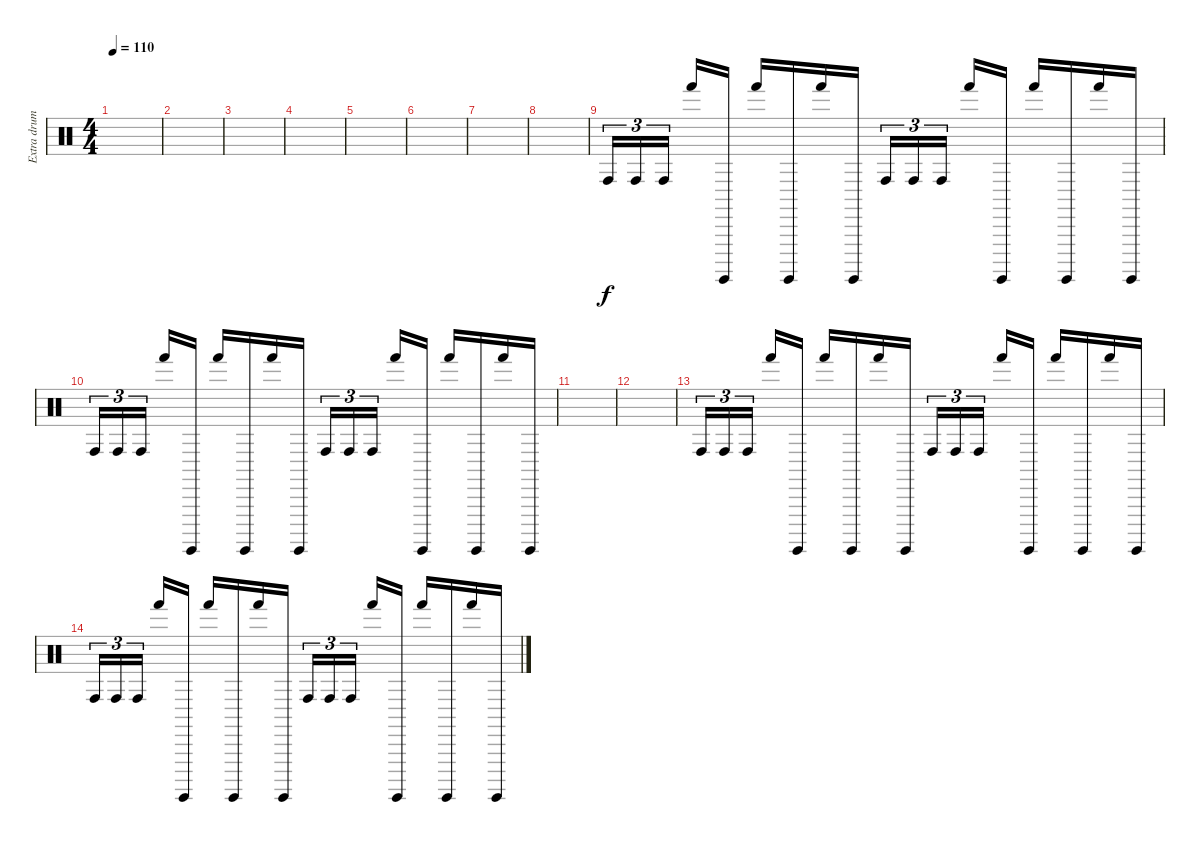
\track ("Extra drums" "Extra drum") {instrument percussion}
\staff {score}
\articulation defaults
\ts (4 4)
\tempo 110
\clef neutral
\ks c
|
|
|
|
|
|
|
|
"Conga high (hit)".16{tu (3 2)} "Conga high (hit)".16{tu (3 2)} "Conga high (hit)".16{tu (3 2) beam splitsecondary} "Hand (hit)".16 "Surdo (hit)".16 "Hand (hit)".16 "Surdo (hit)".16 "Hand (hit)".16 "Surdo (hit)".16 "Conga high (hit)".16{tu (3 2)} "Conga high (hit)".16{tu (3 2)} "Conga high (hit)".16{tu (3 2) beam splitsecondary} "Hand (hit)".16 "Surdo (hit)".16 "Hand (hit)".16 "Surdo (hit)".16 "Hand (hit)".16 "Surdo (hit)".16 |
"Conga high (hit)".16{tu (3 2)} "Conga high (hit)".16{tu (3 2)} "Conga high (hit)".16{tu (3 2) beam splitsecondary} "Hand (hit)".16 "Surdo (hit)".16 "Hand (hit)".16 "Surdo (hit)".16 "Hand (hit)".16 "Surdo (hit)".16 "Conga high (hit)".16{tu (3 2)} "Conga high (hit)".16{tu (3 2)} "Conga high (hit)".16{tu (3 2) beam splitsecondary} "Hand (hit)".16 "Surdo (hit)".16 "Hand (hit)".16 "Surdo (hit)".16 "Hand (hit)".16 "Surdo (hit)".16 |
|
|
"Conga high (hit)".16{tu (3 2)} "Conga high (hit)".16{tu (3 2)} "Conga high (hit)".16{tu (3 2) beam splitsecondary} "Hand (hit)".16 "Surdo (hit)".16 "Hand (hit)".16 "Surdo (hit)".16 "Hand (hit)".16 "Surdo (hit)".16 "Conga high (hit)".16{tu (3 2)} "Conga high (hit)".16{tu (3 2)} "Conga high (hit)".16{tu (3 2) beam splitsecondary} "Hand (hit)".16 "Surdo (hit)".16 "Hand (hit)".16 "Surdo (hit)".16 "Hand (hit)".16 "Surdo (hit)".16 |
"Conga high (hit)".16{tu (3 2)} "Conga high (hit)".16{tu (3 2)} "Conga high (hit)".16{tu (3 2) beam splitsecondary} "Hand (hit)".16 "Surdo (hit)".16 "Hand (hit)".16 "Surdo (hit)".16 "Hand (hit)".16 "Surdo (hit)".16 "Conga high (hit)".16{tu (3 2)} "Conga high (hit)".16{tu (3 2)} "Conga high (hit)".16{tu (3 2) beam splitsecondary} "Hand (hit)".16 "Surdo (hit)".16 "Hand (hit)".16 "Surdo (hit)".16 "Hand (hit)".16 "Surdo (hit)".16
